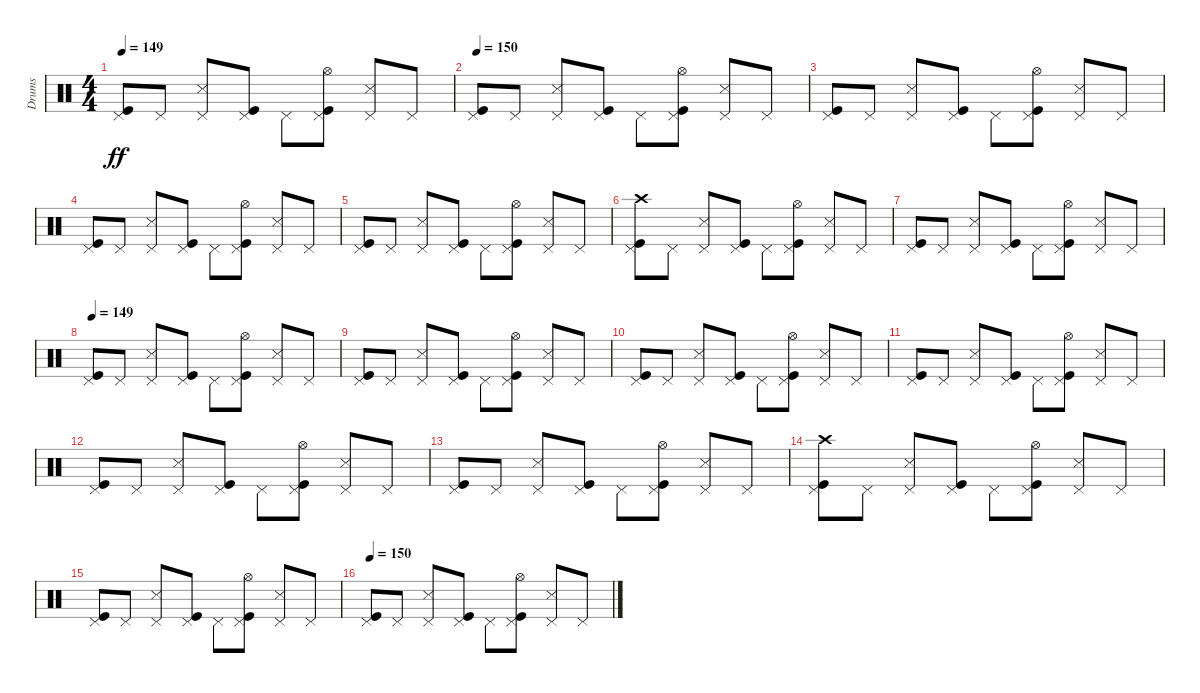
\track ("Drums" "Drums") {instrument percussion}
\staff {score}
\articulation defaults
\ts (4 4)
\tempo 149
\clef neutral
\ks c
("Kick (hit)" "Pedal Hi-Hat (hit)").8{dy ff} "Pedal Hi-Hat (hit)".8 ("Pedal Hi-Hat (hit)" "Metronome (hit)").8 ("Kick (hit)" "Pedal Hi-Hat (hit)").8 "Pedal Hi-Hat (hit)".8 ("Kick (hit)" "Pedal Hi-Hat (hit)" "Hi-Hat (open)").8 ("Pedal Hi-Hat (hit)" "Metronome (hit)").8 "Pedal Hi-Hat (hit)".8 |
\tempo 150
("Kick (hit)" "Pedal Hi-Hat (hit)").8 "Pedal Hi-Hat (hit)".8 ("Pedal Hi-Hat (hit)" "Metronome (hit)").8 ("Kick (hit)" "Pedal Hi-Hat (hit)").8 "Pedal Hi-Hat (hit)".8 ("Kick (hit)" "Pedal Hi-Hat (hit)" "Hi-Hat (open)").8 ("Pedal Hi-Hat (hit)" "Metronome (hit)").8 "Pedal Hi-Hat (hit)".8 |
("Kick (hit)" "Pedal Hi-Hat (hit)").8 "Pedal Hi-Hat (hit)".8 ("Pedal Hi-Hat (hit)" "Metronome (hit)").8 ("Kick (hit)" "Pedal Hi-Hat (hit)").8 "Pedal Hi-Hat (hit)".8 ("Kick (hit)" "Pedal Hi-Hat (hit)" "Hi-Hat (open)").8 ("Pedal Hi-Hat (hit)" "Metronome (hit)").8 "Pedal Hi-Hat (hit)".8 |
("Kick (hit)" "Pedal Hi-Hat (hit)").8 "Pedal Hi-Hat (hit)".8 ("Pedal Hi-Hat (hit)" "Metronome (hit)").8 ("Kick (hit)" "Pedal Hi-Hat (hit)").8 "Pedal Hi-Hat (hit)".8 ("Kick (hit)" "Pedal Hi-Hat (hit)" "Hi-Hat (open)").8 ("Pedal Hi-Hat (hit)" "Metronome (hit)").8 "Pedal Hi-Hat (hit)".8 |
("Kick (hit)" "Pedal Hi-Hat (hit)").8 "Pedal Hi-Hat (hit)".8 ("Pedal Hi-Hat (hit)" "Metronome (hit)").8 ("Kick (hit)" "Pedal Hi-Hat (hit)").8 "Pedal Hi-Hat (hit)".8 ("Kick (hit)" "Pedal Hi-Hat (hit)" "Hi-Hat (open)").8 ("Pedal Hi-Hat (hit)" "Metronome (hit)").8 "Pedal Hi-Hat (hit)".8 |
("Kick (hit)" "Pedal Hi-Hat (hit)" "Crash high (hit)").8 "Pedal Hi-Hat (hit)".8 ("Pedal Hi-Hat (hit)" "Metronome (hit)").8 ("Kick (hit)" "Pedal Hi-Hat (hit)").8 "Pedal Hi-Hat (hit)".8 ("Kick (hit)" "Pedal Hi-Hat (hit)" "Hi-Hat (open)").8 ("Pedal Hi-Hat (hit)" "Metronome (hit)").8 "Pedal Hi-Hat (hit)".8 |
("Kick (hit)" "Pedal Hi-Hat (hit)").8 "Pedal Hi-Hat (hit)".8 ("Pedal Hi-Hat (hit)" "Metronome (hit)").8 ("Kick (hit)" "Pedal Hi-Hat (hit)").8 "Pedal Hi-Hat (hit)".8 ("Kick (hit)" "Pedal Hi-Hat (hit)" "Hi-Hat (open)").8 ("Pedal Hi-Hat (hit)" "Metronome (hit)").8 "Pedal Hi-Hat (hit)".8 |
\tempo 149
("Kick (hit)" "Pedal Hi-Hat (hit)").8 "Pedal Hi-Hat (hit)".8 ("Pedal Hi-Hat (hit)" "Metronome (hit)").8 ("Kick (hit)" "Pedal Hi-Hat (hit)").8 "Pedal Hi-Hat (hit)".8 ("Kick (hit)" "Pedal Hi-Hat (hit)" "Hi-Hat (open)").8 ("Pedal Hi-Hat (hit)" "Metronome (hit)").8 "Pedal Hi-Hat (hit)".8 |
("Kick (hit)" "Pedal Hi-Hat (hit)").8 "Pedal Hi-Hat (hit)".8 ("Pedal Hi-Hat (hit)" "Metronome (hit)").8 ("Kick (hit)" "Pedal Hi-Hat (hit)").8 "Pedal Hi-Hat (hit)".8 ("Kick (hit)" "Pedal Hi-Hat (hit)" "Hi-Hat (open)").8 ("Pedal Hi-Hat (hit)" "Metronome (hit)").8 "Pedal Hi-Hat (hit)".8 |
("Kick (hit)" "Pedal Hi-Hat (hit)").8 "Pedal Hi-Hat (hit)".8 ("Pedal Hi-Hat (hit)" "Metronome (hit)").8 ("Kick (hit)" "Pedal Hi-Hat (hit)").8 "Pedal Hi-Hat (hit)".8 ("Kick (hit)" "Pedal Hi-Hat (hit)" "Hi-Hat (open)").8 ("Pedal Hi-Hat (hit)" "Metronome (hit)").8 "Pedal Hi-Hat (hit)".8 |
("Kick (hit)" "Pedal Hi-Hat (hit)").8 "Pedal Hi-Hat (hit)".8 ("Pedal Hi-Hat (hit)" "Metronome (hit)").8 ("Kick (hit)" "Pedal Hi-Hat (hit)").8 "Pedal Hi-Hat (hit)".8 ("Kick (hit)" "Pedal Hi-Hat (hit)" "Hi-Hat (open)").8 ("Pedal Hi-Hat (hit)" "Metronome (hit)").8 "Pedal Hi-Hat (hit)".8 |
("Kick (hit)" "Pedal Hi-Hat (hit)").8 "Pedal Hi-Hat (hit)".8 ("Pedal Hi-Hat (hit)" "Metronome (hit)").8 ("Kick (hit)" "Pedal Hi-Hat (hit)").8 "Pedal Hi-Hat (hit)".8 ("Kick (hit)" "Pedal Hi-Hat (hit)" "Hi-Hat (open)").8 ("Pedal Hi-Hat (hit)" "Metronome (hit)").8 "Pedal Hi-Hat (hit)".8 |
("Kick (hit)" "Pedal Hi-Hat (hit)").8 "Pedal Hi-Hat (hit)".8 ("Pedal Hi-Hat (hit)" "Metronome (hit)").8 ("Kick (hit)" "Pedal Hi-Hat (hit)").8 "Pedal Hi-Hat (hit)".8 ("Kick (hit)" "Pedal Hi-Hat (hit)" "Hi-Hat (open)").8 ("Pedal Hi-Hat (hit)" "Metronome (hit)").8 "Pedal Hi-Hat (hit)".8 |
("Kick (hit)" "Pedal Hi-Hat (hit)" "Crash high (hit)").8 "Pedal Hi-Hat (hit)".8 ("Pedal Hi-Hat (hit)" "Metronome (hit)").8 ("Kick (hit)" "Pedal Hi-Hat (hit)").8 "Pedal Hi-Hat (hit)".8 ("Kick (hit)" "Pedal Hi-Hat (hit)" "Hi-Hat (open)").8 ("Pedal Hi-Hat (hit)" "Metronome (hit)").8 "Pedal Hi-Hat (hit)".8 |
("Kick (hit)" "Pedal Hi-Hat (hit)").8 "Pedal Hi-Hat (hit)".8 ("Pedal Hi-Hat (hit)" "Metronome (hit)").8 ("Kick (hit)" "Pedal Hi-Hat (hit)").8 "Pedal Hi-Hat (hit)".8 ("Kick (hit)" "Pedal Hi-Hat (hit)" "Hi-Hat (open)").8 ("Pedal Hi-Hat (hit)" "Metronome (hit)").8 "Pedal Hi-Hat (hit)".8 |
\tempo 150
("Kick (hit)" "Pedal Hi-Hat (hit)").8 "Pedal Hi-Hat (hit)".8 ("Pedal Hi-Hat (hit)" "Metronome (hit)").8 ("Kick (hit)" "Pedal Hi-Hat (hit)").8 "Pedal Hi-Hat (hit)".8 ("Kick (hit)" "Pedal Hi-Hat (hit)" "Hi-Hat (open)").8 ("Pedal Hi-Hat (hit)" "Metronome (hit)").8 "Pedal Hi-Hat (hit)".8
